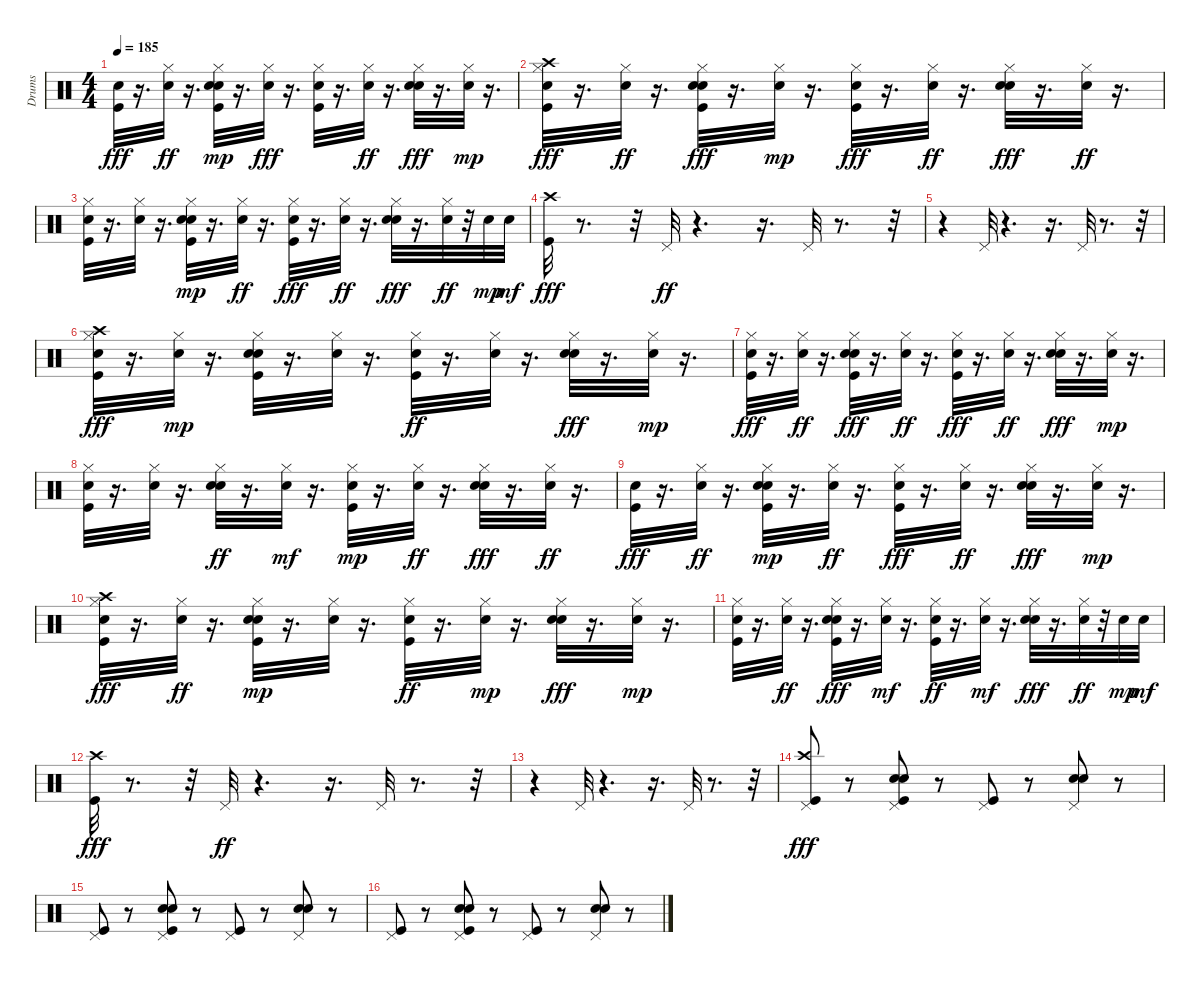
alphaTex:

\track ("Drums" "Drums") {instrument percussion}
\staff {score}
\articulation defaults
\ts (4 4)
\tempo 185
\clef neutral
\ks c
("Kick (hit)" "Snare (hit) 2").32{dy fff} r.16{d} ("Snare (hit) 2" "Hi-Hat (closed)").32{dy ff} r.16{d} ("Kick (hit)" "Hand Clap (hit)" "Hi-Hat (closed)" "Snare (hit) 2").32{dy mp} r.16{d} ("Hi-Hat (closed)" "Snare (hit) 2").32{dy fff} r.16{d} ("Hi-Hat (closed)" "Snare (hit) 2" "Kick (hit)").32 r.16{d} ("Snare (hit) 2" "Hi-Hat (closed)").32{dy ff} r.16{d} ("Snare (hit) 2" "Hi-Hat (closed)" "Hand Clap (hit)").32{dy fff} r.16{d} ("Hi-Hat (closed)" "Snare (hit) 2").32{dy mp} r.16{d} |
("Hi-Hat (closed)" "Snare (hit) 2" "Kick (hit)" "Crash high (hit)").32{dy fff} r.16{d} ("Snare (hit) 2" "Hi-Hat (closed)").32{dy ff} r.16{d} ("Hi-Hat (closed)" "Snare (hit) 2" "Kick (hit)" "Hand Clap (hit)").32{dy fff} r.16{d} ("Hi-Hat (closed)" "Snare (hit) 2").32{dy mp} r.16{d} ("Snare (hit) 2" "Hi-Hat (closed)" "Kick (hit)").32{dy fff} r.16{d} ("Snare (hit) 2" "Hi-Hat (closed)").32{dy ff} r.16{d} ("Hand Clap (hit)" "Hi-Hat (closed)" "Snare (hit) 2").32{dy fff} r.16{d} ("Snare (hit) 2" "Hi-Hat (closed)").32{dy ff} r.16{d} |
("Snare (hit) 2" "Kick (hit)" "Hi-Hat (closed)").32 r.16{d} ("Snare (hit) 2" "Hi-Hat (closed)").32 r.16{d} ("Hand Clap (hit)" "Hi-Hat (closed)" "Snare (hit) 2" "Kick (hit)").32{dy mp} r.16{d} ("Snare (hit) 2" "Hi-Hat (closed)").32{dy ff} r.16{d} ("Hi-Hat (closed)" "Snare (hit) 2" "Kick (hit)").32{dy fff} r.16{d} ("Snare (hit) 2" "Hi-Hat (closed)").32{dy ff} r.16{d} ("Hand Clap (hit)" "Hi-Hat (closed)" "Snare (hit) 2").32{dy fff} r.16{d} ("Snare (hit) 2" "Hi-Hat (closed)").32{dy ff} r.32 "Snare (hit) 2".32{dy mp} "Snare (hit) 2".32{dy mf} |
("Kick (hit)" "Crash high (hit)").32{dy fff} r.8{d} r.32 "Pedal Hi-Hat (hit)".32{dy ff} r.4{d} r.16{d} "Pedal Hi-Hat (hit)".32 r.8{d} r.32 |
r.4 "Pedal Hi-Hat (hit)".32 r.4{d} r.16{d} "Pedal Hi-Hat (hit)".32 r.8{d} r.32 |
("Hi-Hat (closed)" "Snare (hit) 2" "Kick (hit)" "Crash high (hit)").32{dy fff} r.16{d} ("Hi-Hat (closed)" "Snare (hit) 2").32{dy mp} r.16{d} ("Hi-Hat (closed)" "Hand Clap (hit)" "Snare (hit) 2" "Kick (hit)").32 r.16{d} ("Hi-Hat (closed)" "Snare (hit) 2").32 r.16{d} ("Snare (hit) 2" "Kick (hit)" "Hi-Hat (closed)").32{dy ff} r.16{d} ("Snare (hit) 2" "Hi-Hat (closed)").32 r.16{d} ("Snare (hit) 2" "Hi-Hat (closed)" "Hand Clap (hit)").32{dy fff} r.16{d} ("Hi-Hat (closed)" "Snare (hit) 2").32{dy mp} r.16{d} |
("Hi-Hat (closed)" "Snare (hit) 2" "Kick (hit)").32{dy fff} r.16{d} ("Snare (hit) 2" "Hi-Hat (closed)").32{dy ff} r.16{d} ("Snare (hit) 2" "Kick (hit)" "Hi-Hat (closed)" "Hand Clap (hit)").32{dy fff} r.16{d} ("Snare (hit) 2" "Hi-Hat (closed)").32{dy ff} r.16{d} ("Snare (hit) 2" "Hi-Hat (closed)" "Kick (hit)").32{dy fff} r.16{d} ("Snare (hit) 2" "Hi-Hat (closed)").32{dy ff} r.16{d} ("Snare (hit) 2" "Hand Clap (hit)" "Hi-Hat (closed)").32{dy fff} r.16{d} ("Hi-Hat (closed)" "Snare (hit) 2").32{dy mp} r.16{d} |
("Kick (hit)" "Hi-Hat (closed)" "Snare (hit) 2").32 r.16{d} ("Hi-Hat (closed)" "Snare (hit) 2").32 r.16{d} ("Snare (hit) 2" "Hand Clap (hit)" "Hi-Hat (closed)").32{dy ff} r.16{d} ("Hi-Hat (closed)" "Snare (hit) 2").32{dy mf} r.16{d} ("Hi-Hat (closed)" "Kick (hit)" "Snare (hit) 2").32{dy mp} r.16{d} ("Snare (hit) 2" "Hi-Hat (closed)").32{dy ff} r.16{d} ("Hi-Hat (closed)" "Snare (hit) 2" "Hand Clap (hit)").32{dy fff} r.16{d} ("Snare (hit) 2" "Hi-Hat (closed)").32{dy ff} r.16{d} |
("Kick (hit)" "Snare (hit) 2").32{dy fff} r.16{d} ("Snare (hit) 2" "Hi-Hat (closed)").32{dy ff} r.16{d} ("Hi-Hat (closed)" "Hand Clap (hit)" "Snare (hit) 2" "Kick (hit)").32{dy mp} r.16{d} ("Snare (hit) 2" "Hi-Hat (closed)").32{dy ff} r.16{d} ("Hi-Hat (closed)" "Snare (hit) 2" "Kick (hit)").32{dy fff} r.16{d} ("Snare (hit) 2" "Hi-Hat (closed)").32{dy ff} r.16{d} ("Hi-Hat (closed)" "Hand Clap (hit)" "Snare (hit) 2").32{dy fff} r.16{d} ("Hi-Hat (closed)" "Snare (hit) 2").32{dy mp} r.16{d} |
("Kick (hit)" "Hi-Hat (closed)" "Snare (hit) 2" "Crash high (hit)").32{dy fff} r.16{d} ("Snare (hit) 2" "Hi-Hat (closed)").32{dy ff} r.16{d} ("Hand Clap (hit)" "Snare (hit) 2" "Hi-Hat (closed)" "Kick (hit)").32{dy mp} r.16{d} ("Hi-Hat (closed)" "Snare (hit) 2").32 r.16{d} ("Kick (hit)" "Snare (hit) 2" "Hi-Hat (closed)").32{dy ff} r.16{d} ("Hi-Hat (closed)" "Snare (hit) 2").32{dy mp} r.16{d} ("Hand Clap (hit)" "Snare (hit) 2" "Hi-Hat (closed)").32{dy fff} r.16{d} ("Hi-Hat (closed)" "Snare (hit) 2").32{dy mp} r.16{d} |
("Hi-Hat (closed)" "Kick (hit)" "Snare (hit) 2").32 r.16{d} ("Snare (hit) 2" "Hi-Hat (closed)").32{dy ff} r.16{d} ("Hand Clap (hit)" "Kick (hit)" "Hi-Hat (closed)" "Snare (hit) 2").32{dy fff} r.16{d} ("Hi-Hat (closed)" "Snare (hit) 2").32{dy mf} r.16{d} ("Snare (hit) 2" "Kick (hit)" "Hi-Hat (closed)").32{dy ff} r.16{d} ("Hi-Hat (closed)" "Snare (hit) 2").32{dy mf} r.16{d} ("Hi-Hat (closed)" "Hand Clap (hit)" "Snare (hit) 2").32{dy fff} r.16{d} ("Snare (hit) 2" "Hi-Hat (closed)").32{dy ff} r.32 "Snare (hit) 2".32{dy mp} "Snare (hit) 2".32{dy mf} |
("Crash high (hit)" "Kick (hit)").32{dy fff} r.8{d} r.32 "Pedal Hi-Hat (hit)".32{dy ff} r.4{d} r.16{d} "Pedal Hi-Hat (hit)".32 r.8{d} r.32 |
r.4 "Pedal Hi-Hat (hit)".32 r.4{d} r.16{d} "Pedal Hi-Hat (hit)".32 r.8{d} r.32 |
("Pedal Hi-Hat (hit)" "Crash high (hit)" "Kick (hit)").8{dy fff} r.8 ("Pedal Hi-Hat (hit)" "Kick (hit)" "Hand Clap (hit)" "Snare (hit) 2").8 r.8 ("Pedal Hi-Hat (hit)" "Kick (hit)").8 r.8 ("Snare (hit) 2" "Pedal Hi-Hat (hit)" "Hand Clap (hit)").8 r.8 |
("Pedal Hi-Hat (hit)" "Kick (hit)").8 r.8 ("Pedal Hi-Hat (hit)" "Kick (hit)" "Hand Clap (hit)" "Snare (hit) 2").8 r.8 ("Pedal Hi-Hat (hit)" "Kick (hit)").8 r.8 ("Snare (hit) 2" "Pedal Hi-Hat (hit)" "Hand Clap (hit)").8 r.8 |
("Pedal Hi-Hat (hit)" "Kick (hit)").8 r.8 ("Pedal Hi-Hat (hit)" "Kick (hit)" "Hand Clap (hit)" "Snare (hit) 2").8 r.8 ("Pedal Hi-Hat (hit)" "Kick (hit)").8 r.8 ("Snare (hit) 2" "Pedal Hi-Hat (hit)" "Hand Clap (hit)").8 r.8
